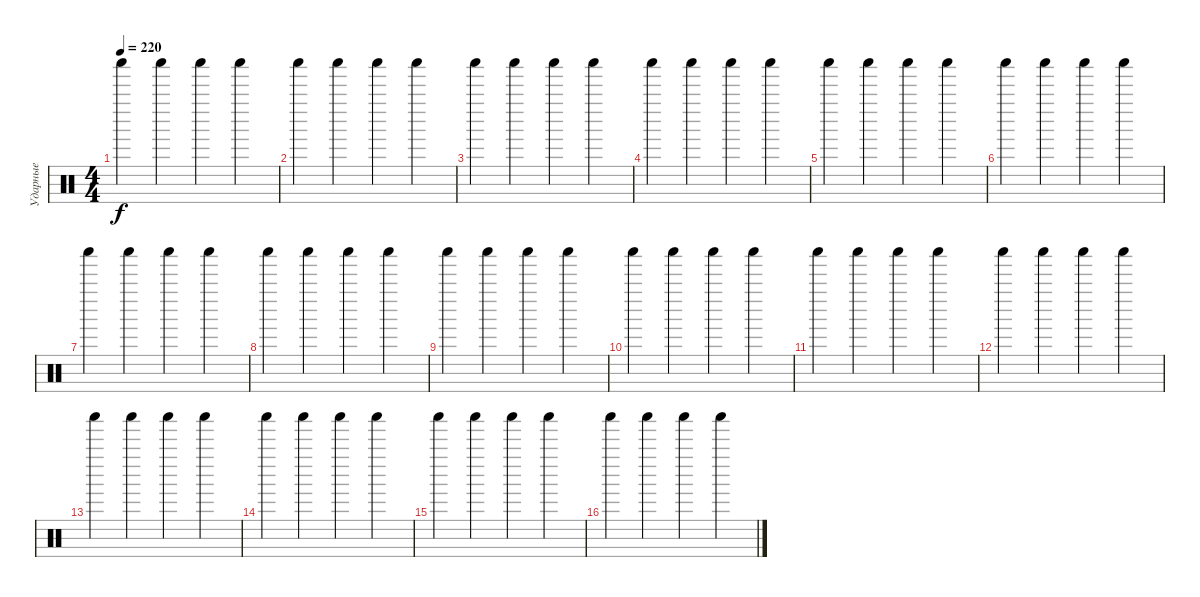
\track ("Ударные" "Ударные") {instrument percussion}
\staff {score}
\articulation defaults
\ts (4 4)
\tempo 220
\clef neutral
\ks c "Shaker (hit)".4{dy f} "Shaker (hit)".4 "Shaker (hit)".4 "Shaker (hit)".4
|
"Shaker (hit)".4 "Shaker (hit)".4 "Shaker (hit)".4 "Shaker (hit)".4 |
"Shaker (hit)".4 "Shaker (hit)".4 "Shaker (hit)".4 "Shaker (hit)".4 |
"Shaker (hit)".4 "Shaker (hit)".4 "Shaker (hit)".4 "Shaker (hit)".4 |
"Shaker (hit)".4 "Shaker (hit)".4 "Shaker (hit)".4 "Shaker (hit)".4 |
"Shaker (hit)".4 "Shaker (hit)".4 "Shaker (hit)".4 "Shaker (hit)".4 |
"Shaker (hit)".4 "Shaker (hit)".4 "Shaker (hit)".4 "Shaker (hit)".4 |
"Shaker (hit)".4 "Shaker (hit)".4 "Shaker (hit)".4 "Shaker (hit)".4 |
"Shaker (hit)".4 "Shaker (hit)".4 "Shaker (hit)".4 "Shaker (hit)".4 |
"Shaker (hit)".4 "Shaker (hit)".4 "Shaker (hit)".4 "Shaker (hit)".4 |
"Shaker (hit)".4 "Shaker (hit)".4 "Shaker (hit)".4 "Shaker (hit)".4 |
"Shaker (hit)".4 "Shaker (hit)".4 "Shaker (hit)".4 "Shaker (hit)".4 |
"Shaker (hit)".4 "Shaker (hit)".4 "Shaker (hit)".4 "Shaker (hit)".4 |
"Shaker (hit)".4 "Shaker (hit)".4 "Shaker (hit)".4 "Shaker (hit)".4 |
"Shaker (hit)".4 "Shaker (hit)".4 "Shaker (hit)".4 "Shaker (hit)".4 |
"Shaker (hit)".4 "Shaker (hit)".4 "Shaker (hit)".4 "Shaker (hit)".4
